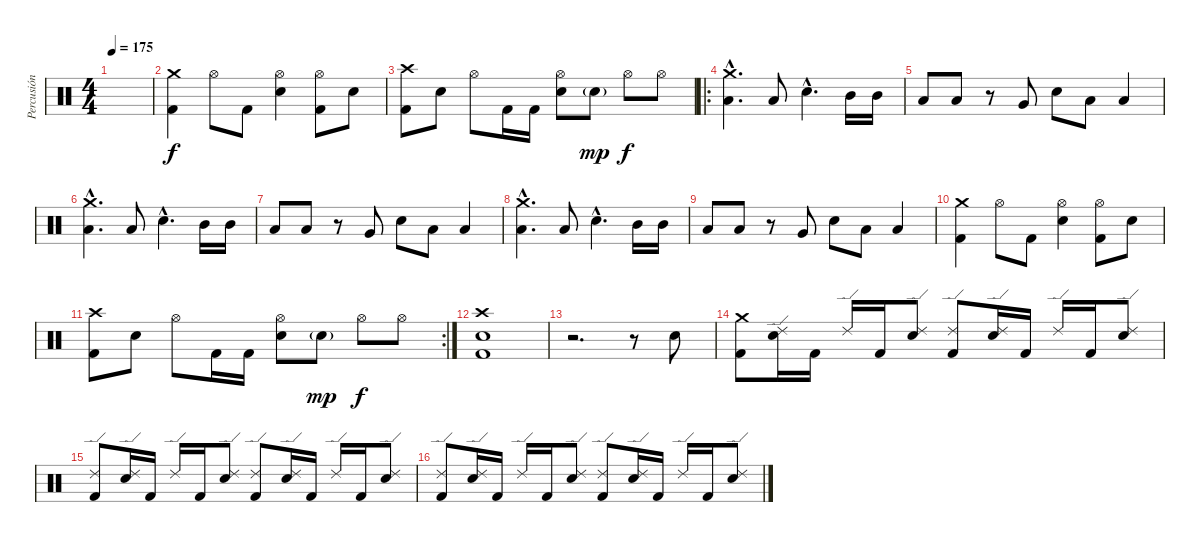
\track ("Percusión" "Percusión") {instrument percussion}
\staff {score}
\articulation defaults
\ts (4 4)
\tempo 175
\clef neutral
\ks c
|
("Crash medium (hit)" "Kick (hit) 2").4 "Hi-Hat (open)".8 "Kick (hit) 2".8 ("Hi-Hat (open)" "Electric Snare (hit)").4 ("Hi-Hat (open)" "Kick (hit) 2").8 "Electric Snare (hit)".8 |
("Crash high (hit)" "Kick (hit) 2").8 "Electric Snare (hit)".8 "Hi-Hat (open)".8 "Kick (hit) 2".16 "Kick (hit) 2".16 ("Hi-Hat (open)" "Electric Snare (hit)").8 "Electric Snare (hit)"{g}.8{dy mp} "Hi-Hat (open)".8{dy f} "Hi-Hat (open)".8 |
\ro
("Crash medium (hit)"{hac} "Low Tom (hit)"{hac}).4{d} "Low Tom (hit)".8 "Electric Snare (hit)"{hac}.4{d} "Mid Tom (hit)".16 "Mid Tom (hit)".16 |
"Low Tom (hit)".8 "Low Tom (hit)".8 r.8 "Very Low Tom (hit)".8 "Electric Snare (hit)".8 "Low Tom (hit)".8 "Low Tom (hit)".4 |
("Crash medium (hit)"{hac} "Low Tom (hit)"{hac}).4{d} "Low Tom (hit)".8 "Electric Snare (hit)"{hac}.4{d} "Mid Tom (hit)".16 "Mid Tom (hit)".16 |
"Low Tom (hit)".8 "Low Tom (hit)".8 r.8 "Very Low Tom (hit)".8 "Electric Snare (hit)".8 "Low Tom (hit)".8 "Low Tom (hit)".4 |
("Crash medium (hit)"{hac} "Low Tom (hit)"{hac}).4{d} "Low Tom (hit)".8 "Electric Snare (hit)"{hac}.4{d} "Mid Tom (hit)".16 "Mid Tom (hit)".16 |
"Low Tom (hit)".8 "Low Tom (hit)".8 r.8 "Very Low Tom (hit)".8 "Electric Snare (hit)".8 "Low Tom (hit)".8 "Low Tom (hit)".4 |
("Crash medium (hit)" "Kick (hit) 2").4 "Hi-Hat (open)".8 "Kick (hit) 2".8 ("Hi-Hat (open)" "Electric Snare (hit)").4 ("Hi-Hat (open)" "Kick (hit) 2").8 "Electric Snare (hit)".8 |
\rc 2
("Crash high (hit)" "Kick (hit) 2").8 "Electric Snare (hit)".8 "Hi-Hat (open)".8 "Kick (hit) 2".16 "Kick (hit) 2".16 ("Hi-Hat (open)" "Electric Snare (hit)").8 "Electric Snare (hit)"{g}.8{dy mp} "Hi-Hat (open)".8{dy f} "Hi-Hat (open)".8 |
("Crash high (hit)" "Electric Snare (hit)" "Kick (hit) 2").1 |
r.2{d} r.8 "Electric Snare (hit)".8 |
("Crash medium (hit)" "Kick (hit) 2").8 ("Ride (edge) 2" "Electric Snare (hit)").16 "Kick (hit) 2".16 "Ride (edge) 2".16 "Kick (hit) 2".16 ("Ride (edge) 2" "Electric Snare (hit)").8 ("Ride (edge) 2" "Kick (hit) 2").8 ("Ride (edge) 2" "Electric Snare (hit)").16 "Kick (hit) 2".16 "Ride (edge) 2".16 "Kick (hit) 2".16 ("Ride (edge) 2" "Electric Snare (hit)").8 |
("Ride (edge) 2" "Kick (hit) 2").8 ("Ride (edge) 2" "Electric Snare (hit)").16 "Kick (hit) 2".16 "Ride (edge) 2".16 "Kick (hit) 2".16 ("Ride (edge) 2" "Electric Snare (hit)").8 ("Ride (edge) 2" "Kick (hit) 2").8 ("Ride (edge) 2" "Electric Snare (hit)").16 "Kick (hit) 2".16 "Ride (edge) 2".16 "Kick (hit) 2".16 ("Ride (edge) 2" "Electric Snare (hit)").8 |
("Ride (edge) 2" "Kick (hit) 2").8 ("Ride (edge) 2" "Electric Snare (hit)").16 "Kick (hit) 2".16 "Ride (edge) 2".16 "Kick (hit) 2".16 ("Ride (edge) 2" "Electric Snare (hit)").8 ("Ride (edge) 2" "Kick (hit) 2").8 ("Ride (edge) 2" "Electric Snare (hit)").16 "Kick (hit) 2".16 "Ride (edge) 2".16 "Kick (hit) 2".16 ("Ride (edge) 2" "Electric Snare (hit)").8
